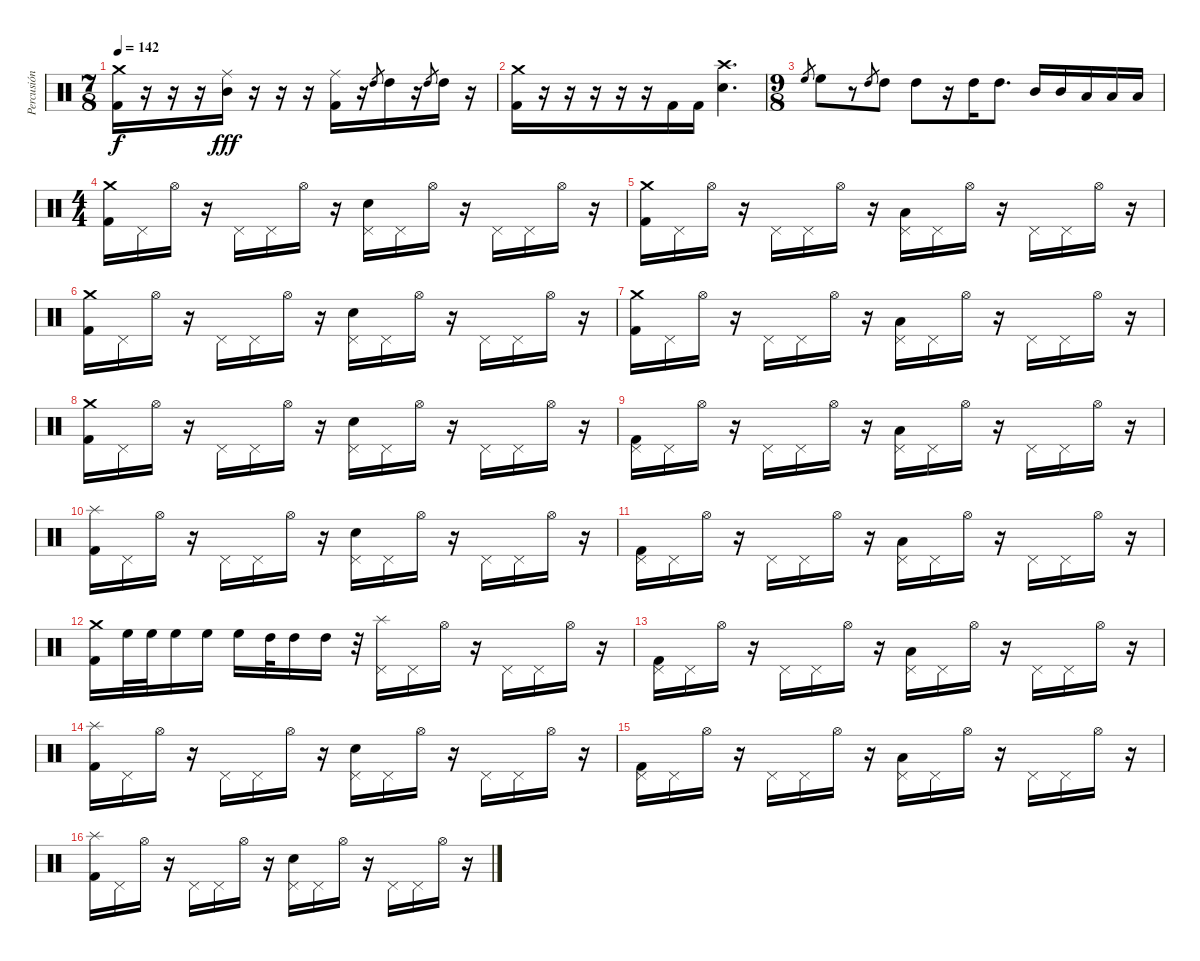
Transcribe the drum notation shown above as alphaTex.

\track ("Percusión" "Percusión") {instrument percussion}
\staff {score}
\articulation defaults
\ts (7 8)
\tempo 142
\clef neutral
\ks c
("Crash medium (hit)" "Kick (hit) 2").16{dy f} r.16 r.16 r.16 ("Ride (middle)" "Mid Tom (hit)").16{dy fff} r.16 r.16 r.16 ("Ride (middle)" "Kick (hit) 2").16 r.16 "High Tom (hit)".8{gr} "High Tom (hit)".16 r.16 "High Tom (hit)".8{gr} "High Tom (hit)".16 r.16 |
("Crash medium (hit)" "Kick (hit) 2").16 r.16 r.16 r.16 r.16 r.16 "Kick (hit) 2".16 "Kick (hit) 2".16 ("Crash high (hit)" "Electric Snare (hit)").4{d} |
\ts (9 8)
"High Floor Tom (hit)".8{gr} "High Floor Tom (hit)".8 r.8 "High Tom (hit)".8{gr} "High Tom (hit)".8 "High Tom (hit)".8 r.16 "High Tom (hit)".16 "High Tom (hit)".8{d} "Mid Tom (hit)".16 "Mid Tom (hit)".16 "Low Tom (hit)".16 "Low Tom (hit)".16 "Low Tom (hit)".16 |
\ts (4 4)
("Crash medium (hit)" "Kick (hit) 2").16 "Pedal Hi-Hat (hit)".16 "Hi-Hat (open)".16 r.16 "Pedal Hi-Hat (hit)".16 "Pedal Hi-Hat (hit)".16 "Hi-Hat (open)".16 r.16 ("Pedal Hi-Hat (hit)" "Electric Snare (hit)").16 "Pedal Hi-Hat (hit)".16 "Hi-Hat (open)".16 r.16 "Pedal Hi-Hat (hit)".16 "Pedal Hi-Hat (hit)".16 "Hi-Hat (open)".16 r.16 |
("Crash medium (hit)" "Kick (hit) 2").16 "Pedal Hi-Hat (hit)".16 "Hi-Hat (open)".16 r.16 "Pedal Hi-Hat (hit)".16 "Pedal Hi-Hat (hit)".16 "Hi-Hat (open)".16 r.16 ("Pedal Hi-Hat (hit)" "Low Tom (hit)").16 "Pedal Hi-Hat (hit)".16 "Hi-Hat (open)".16 r.16 "Pedal Hi-Hat (hit)".16 "Pedal Hi-Hat (hit)".16 "Hi-Hat (open)".16 r.16 |
("Crash medium (hit)" "Kick (hit) 2").16 "Pedal Hi-Hat (hit)".16 "Hi-Hat (open)".16 r.16 "Pedal Hi-Hat (hit)".16 "Pedal Hi-Hat (hit)".16 "Hi-Hat (open)".16 r.16 ("Pedal Hi-Hat (hit)" "Electric Snare (hit)").16 "Pedal Hi-Hat (hit)".16 "Hi-Hat (open)".16 r.16 "Pedal Hi-Hat (hit)".16 "Pedal Hi-Hat (hit)".16 "Hi-Hat (open)".16 r.16 |
("Crash medium (hit)" "Kick (hit) 2").16 "Pedal Hi-Hat (hit)".16 "Hi-Hat (open)".16 r.16 "Pedal Hi-Hat (hit)".16 "Pedal Hi-Hat (hit)".16 "Hi-Hat (open)".16 r.16 ("Pedal Hi-Hat (hit)" "Low Tom (hit)").16 "Pedal Hi-Hat (hit)".16 "Hi-Hat (open)".16 r.16 "Pedal Hi-Hat (hit)".16 "Pedal Hi-Hat (hit)".16 "Hi-Hat (open)".16 r.16 |
("Crash medium (hit)" "Kick (hit) 2").16 "Pedal Hi-Hat (hit)".16 "Hi-Hat (open)".16 r.16 "Pedal Hi-Hat (hit)".16 "Pedal Hi-Hat (hit)".16 "Hi-Hat (open)".16 r.16 ("Pedal Hi-Hat (hit)" "Electric Snare (hit)").16 "Pedal Hi-Hat (hit)".16 "Hi-Hat (open)".16 r.16 "Pedal Hi-Hat (hit)".16 "Pedal Hi-Hat (hit)".16 "Hi-Hat (open)".16 r.16 |
("Pedal Hi-Hat (hit)" "Kick (hit) 2").16 "Pedal Hi-Hat (hit)".16 "Hi-Hat (open)".16 r.16 "Pedal Hi-Hat (hit)".16 "Pedal Hi-Hat (hit)".16 "Hi-Hat (open)".16 r.16 ("Pedal Hi-Hat (hit)" "Low Tom (hit)").16 "Pedal Hi-Hat (hit)".16 "Hi-Hat (open)".16 r.16 "Pedal Hi-Hat (hit)".16 "Pedal Hi-Hat (hit)".16 "Hi-Hat (open)".16 r.16 |
("Splash (hit)" "Kick (hit) 2").16 "Pedal Hi-Hat (hit)".16 "Hi-Hat (open)".16 r.16 "Pedal Hi-Hat (hit)".16 "Pedal Hi-Hat (hit)".16 "Hi-Hat (open)".16 r.16 ("Pedal Hi-Hat (hit)" "Electric Snare (hit)").16 "Pedal Hi-Hat (hit)".16 "Hi-Hat (open)".16 r.16 "Pedal Hi-Hat (hit)".16 "Pedal Hi-Hat (hit)".16 "Hi-Hat (open)".16 r.16 |
("Pedal Hi-Hat (hit)" "Kick (hit) 2").16 "Pedal Hi-Hat (hit)".16 "Hi-Hat (open)".16 r.16 "Pedal Hi-Hat (hit)".16 "Pedal Hi-Hat (hit)".16 "Hi-Hat (open)".16 r.16 ("Pedal Hi-Hat (hit)" "Low Tom (hit)").16 "Pedal Hi-Hat (hit)".16 "Hi-Hat (open)".16 r.16 "Pedal Hi-Hat (hit)".16 "Pedal Hi-Hat (hit)".16 "Hi-Hat (open)".16 r.16 |
("Crash medium (hit)" "Kick (hit) 2").16 "High Floor Tom (hit)".32 "High Floor Tom (hit)".32 "High Floor Tom (hit)".16 "High Floor Tom (hit)".16 "High Floor Tom (hit)".16 "High Tom (hit)".32 "High Tom (hit)".16 "High Tom (hit)".16 r.32 ("Splash (hit)" "Pedal Hi-Hat (hit)").16 "Pedal Hi-Hat (hit)".16 "Hi-Hat (open)".16 r.16 "Pedal Hi-Hat (hit)".16 "Pedal Hi-Hat (hit)".16 "Hi-Hat (open)".16 r.16 |
("Pedal Hi-Hat (hit)" "Kick (hit) 2").16 "Pedal Hi-Hat (hit)".16 "Hi-Hat (open)".16 r.16 "Pedal Hi-Hat (hit)".16 "Pedal Hi-Hat (hit)".16 "Hi-Hat (open)".16 r.16 ("Pedal Hi-Hat (hit)" "Low Tom (hit)").16 "Pedal Hi-Hat (hit)".16 "Hi-Hat (open)".16 r.16 "Pedal Hi-Hat (hit)".16 "Pedal Hi-Hat (hit)".16 "Hi-Hat (open)".16 r.16 |
("Splash (hit)" "Kick (hit) 2").16 "Pedal Hi-Hat (hit)".16 "Hi-Hat (open)".16 r.16 "Pedal Hi-Hat (hit)".16 "Pedal Hi-Hat (hit)".16 "Hi-Hat (open)".16 r.16 ("Pedal Hi-Hat (hit)" "Electric Snare (hit)").16 "Pedal Hi-Hat (hit)".16 "Hi-Hat (open)".16 r.16 "Pedal Hi-Hat (hit)".16 "Pedal Hi-Hat (hit)".16 "Hi-Hat (open)".16 r.16 |
("Pedal Hi-Hat (hit)" "Kick (hit) 2").16 "Pedal Hi-Hat (hit)".16 "Hi-Hat (open)".16 r.16 "Pedal Hi-Hat (hit)".16 "Pedal Hi-Hat (hit)".16 "Hi-Hat (open)".16 r.16 ("Pedal Hi-Hat (hit)" "Low Tom (hit)").16 "Pedal Hi-Hat (hit)".16 "Hi-Hat (open)".16 r.16 "Pedal Hi-Hat (hit)".16 "Pedal Hi-Hat (hit)".16 "Hi-Hat (open)".16 r.16 |
("Splash (hit)" "Kick (hit) 2").16 "Pedal Hi-Hat (hit)".16 "Hi-Hat (open)".16 r.16 "Pedal Hi-Hat (hit)".16 "Pedal Hi-Hat (hit)".16 "Hi-Hat (open)".16 r.16 ("Pedal Hi-Hat (hit)" "Electric Snare (hit)").16 "Pedal Hi-Hat (hit)".16 "Hi-Hat (open)".16 r.16 "Pedal Hi-Hat (hit)".16 "Pedal Hi-Hat (hit)".16 "Hi-Hat (open)".16 r.16
